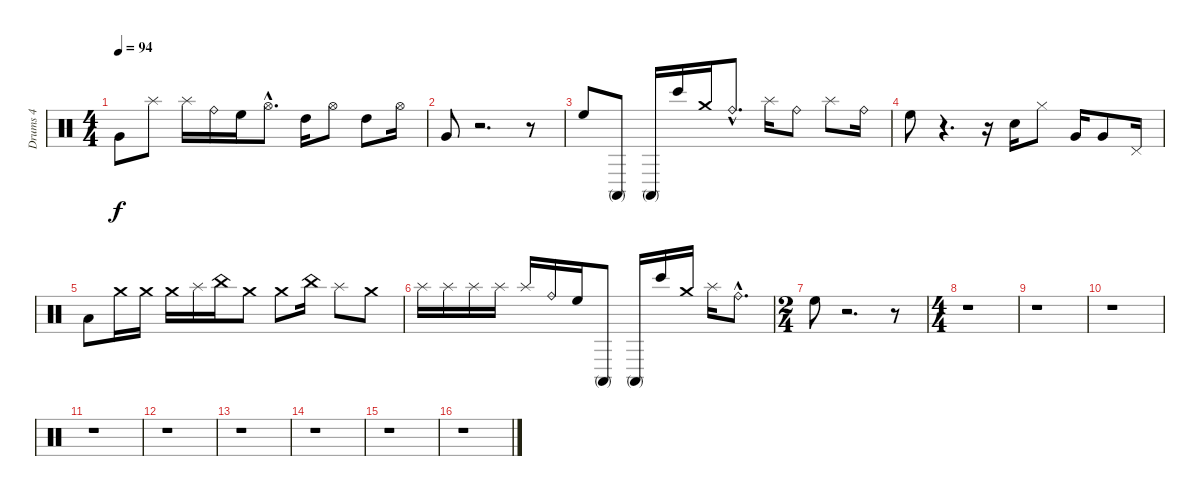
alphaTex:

\track ("Drums 4" "Drums 4") {instrument percussion}
\staff {score}
\articulation defaults
\ts (4 4)
\tempo 94
\clef neutral
\ks c "Very Low Tom (hit)".8{dy f} "Splash (hit)".8 "Splash (hit)".16 "Ride (bell)".16 "High Floor Tom (hit)".16 "Hi-Hat (open)"{hac}.8{d} "High Tom (hit)".16 "Hi-Hat (open)".8 "High Tom (hit)".8 "Hi-Hat (open)".16
|
"Very Low Tom (hit)".8 r.2{d} r.8 |
"High Floor Tom (hit)".8 "Conga high (mute)".8 "Conga high (mute)".16 "Bongo High (hit)".16 "Crash medium (hit)".16 "Ride (bell)"{hac}.8{d} "Splash (hit)".16 "Ride (bell)".8 "Splash (hit)".8 "Ride (bell)".16 |
"High Floor Tom (hit)".8 r.4{d} r.16 "Snare (hit) 2".16 "Hi-Hat (closed)".8 "Very Low Tom (hit)".16 "Very Low Tom (hit)".8 "Pedal Hi-Hat (hit)".16 |
"Low Tom (hit)".8 "Crash medium (hit)".16 "Crash medium (hit)".16 "Crash medium (hit)".16 "Splash (hit)".16 "China (hit)".16 "Crash medium (hit)".8 "Crash medium (hit)".8 "China (hit)".16 "Splash (hit)".8 "Crash medium (hit)".8 |
"Splash (hit)".16 "Splash (hit)".16 "Splash (hit)".16 "Splash (hit)".16 "Splash (hit)".16 "Ride (bell)".16 "High Floor Tom (hit)".16 "Conga high (mute)".8 "Conga high (mute)".16 "Bongo High (hit)".16 "Crash medium (hit)".16 "Splash (hit)".16 "Ride (bell)"{hac}.8{d} |
\ts (2 4)
"High Floor Tom (hit)".8 r.2{d} r.8 |
\ts (4 4)
r.1 |
r.1 |
r.1 |
r.1 |
r.1 |
r.1 |
r.1 |
r.1 |
r.1
